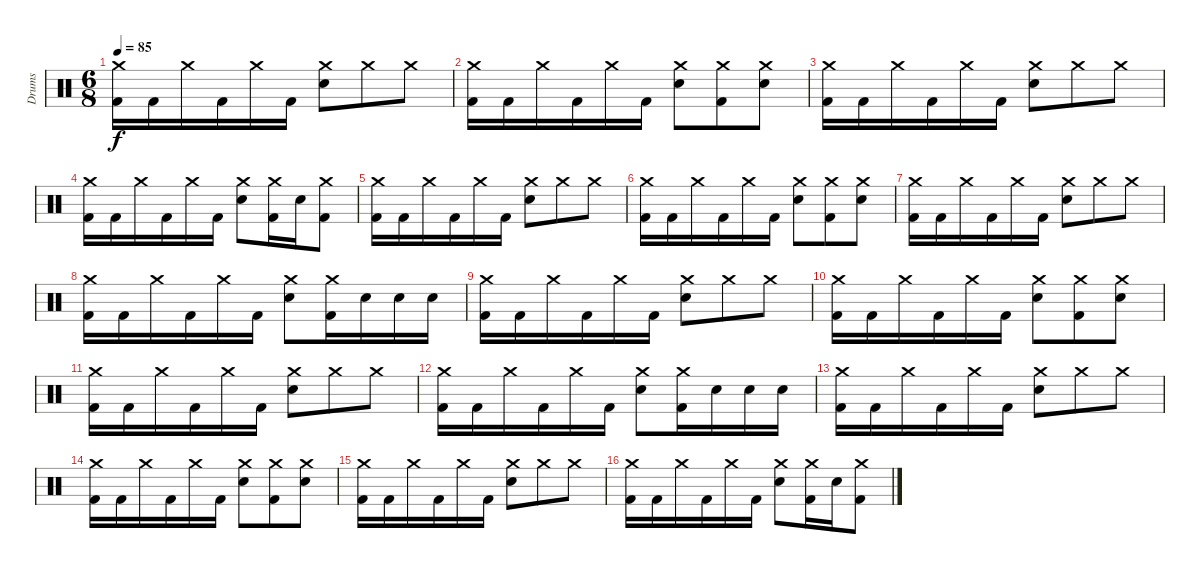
\track ("Drums" "Drums") {instrument percussion}
\staff {score}
\articulation defaults
\ts (6 8)
\tempo 85
\clef neutral
\ks c
("Crash medium (hit)" "Kick (hit) 2").16{dy f} "Kick (hit) 2".16 "Crash medium (hit)".16 "Kick (hit) 2".16 "Crash medium (hit)".16 "Kick (hit) 2".16 ("Crash medium (hit)" "Electric Snare (hit)").8 "Crash medium (hit)".8 "Crash medium (hit)".8 |
("Crash medium (hit)" "Kick (hit) 2").16 "Kick (hit) 2".16 "Crash medium (hit)".16 "Kick (hit) 2".16 "Crash medium (hit)".16 "Kick (hit) 2".16 ("Crash medium (hit)" "Electric Snare (hit)").8 ("Crash medium (hit)" "Kick (hit) 2").8 ("Crash medium (hit)" "Electric Snare (hit)").8 |
("Crash medium (hit)" "Kick (hit) 2").16 "Kick (hit) 2".16 "Crash medium (hit)".16 "Kick (hit) 2".16 "Crash medium (hit)".16 "Kick (hit) 2".16 ("Crash medium (hit)" "Electric Snare (hit)").8 "Crash medium (hit)".8 "Crash medium (hit)".8 |
("Crash medium (hit)" "Kick (hit) 2").16 "Kick (hit) 2".16 "Crash medium (hit)".16 "Kick (hit) 2".16 "Crash medium (hit)".16 "Kick (hit) 2".16 ("Crash medium (hit)" "Electric Snare (hit)").8 ("Crash medium (hit)" "Kick (hit) 2").16 "Electric Snare (hit)".16 ("Crash medium (hit)" "Kick (hit) 2").8 |
("Crash medium (hit)" "Kick (hit) 2").16 "Kick (hit) 2".16 "Crash medium (hit)".16 "Kick (hit) 2".16 "Crash medium (hit)".16 "Kick (hit) 2".16 ("Crash medium (hit)" "Electric Snare (hit)").8 "Crash medium (hit)".8 "Crash medium (hit)".8 |
("Crash medium (hit)" "Kick (hit) 2").16 "Kick (hit) 2".16 "Crash medium (hit)".16 "Kick (hit) 2".16 "Crash medium (hit)".16 "Kick (hit) 2".16 ("Crash medium (hit)" "Electric Snare (hit)").8 ("Crash medium (hit)" "Kick (hit) 2").8 ("Crash medium (hit)" "Electric Snare (hit)").8 |
("Crash medium (hit)" "Kick (hit) 2").16 "Kick (hit) 2".16 "Crash medium (hit)".16 "Kick (hit) 2".16 "Crash medium (hit)".16 "Kick (hit) 2".16 ("Crash medium (hit)" "Electric Snare (hit)").8 "Crash medium (hit)".8 "Crash medium (hit)".8 |
("Crash medium (hit)" "Kick (hit) 2").16 "Kick (hit) 2".16 "Crash medium (hit)".16 "Kick (hit) 2".16 "Crash medium (hit)".16 "Kick (hit) 2".16 ("Crash medium (hit)" "Electric Snare (hit)").8 ("Crash medium (hit)" "Kick (hit) 2").16 "Electric Snare (hit)".16 "Electric Snare (hit)".16 "Electric Snare (hit)".16 |
("Crash medium (hit)" "Kick (hit) 2").16 "Kick (hit) 2".16 "Crash medium (hit)".16 "Kick (hit) 2".16 "Crash medium (hit)".16 "Kick (hit) 2".16 ("Crash medium (hit)" "Electric Snare (hit)").8 "Crash medium (hit)".8 "Crash medium (hit)".8 |
("Crash medium (hit)" "Kick (hit) 2").16 "Kick (hit) 2".16 "Crash medium (hit)".16 "Kick (hit) 2".16 "Crash medium (hit)".16 "Kick (hit) 2".16 ("Crash medium (hit)" "Electric Snare (hit)").8 ("Crash medium (hit)" "Kick (hit) 2").8 ("Crash medium (hit)" "Electric Snare (hit)").8 |
("Crash medium (hit)" "Kick (hit) 2").16 "Kick (hit) 2".16 "Crash medium (hit)".16 "Kick (hit) 2".16 "Crash medium (hit)".16 "Kick (hit) 2".16 ("Crash medium (hit)" "Electric Snare (hit)").8 "Crash medium (hit)".8 "Crash medium (hit)".8 |
("Crash medium (hit)" "Kick (hit) 2").16 "Kick (hit) 2".16 "Crash medium (hit)".16 "Kick (hit) 2".16 "Crash medium (hit)".16 "Kick (hit) 2".16 ("Crash medium (hit)" "Electric Snare (hit)").8 ("Crash medium (hit)" "Kick (hit) 2").16 "Electric Snare (hit)".16 "Electric Snare (hit)".16 "Electric Snare (hit)".16 |
("Crash medium (hit)" "Kick (hit) 2").16 "Kick (hit) 2".16 "Crash medium (hit)".16 "Kick (hit) 2".16 "Crash medium (hit)".16 "Kick (hit) 2".16 ("Crash medium (hit)" "Electric Snare (hit)").8 "Crash medium (hit)".8 "Crash medium (hit)".8 |
("Crash medium (hit)" "Kick (hit) 2").16 "Kick (hit) 2".16 "Crash medium (hit)".16 "Kick (hit) 2".16 "Crash medium (hit)".16 "Kick (hit) 2".16 ("Crash medium (hit)" "Electric Snare (hit)").8 ("Crash medium (hit)" "Kick (hit) 2").8 ("Crash medium (hit)" "Electric Snare (hit)").8 |
("Crash medium (hit)" "Kick (hit) 2").16 "Kick (hit) 2".16 "Crash medium (hit)".16 "Kick (hit) 2".16 "Crash medium (hit)".16 "Kick (hit) 2".16 ("Crash medium (hit)" "Electric Snare (hit)").8 "Crash medium (hit)".8 "Crash medium (hit)".8 |
("Crash medium (hit)" "Kick (hit) 2").16 "Kick (hit) 2".16 "Crash medium (hit)".16 "Kick (hit) 2".16 "Crash medium (hit)".16 "Kick (hit) 2".16 ("Crash medium (hit)" "Electric Snare (hit)").8 ("Crash medium (hit)" "Kick (hit) 2").16 "Electric Snare (hit)".16 ("Crash medium (hit)" "Kick (hit) 2").8
